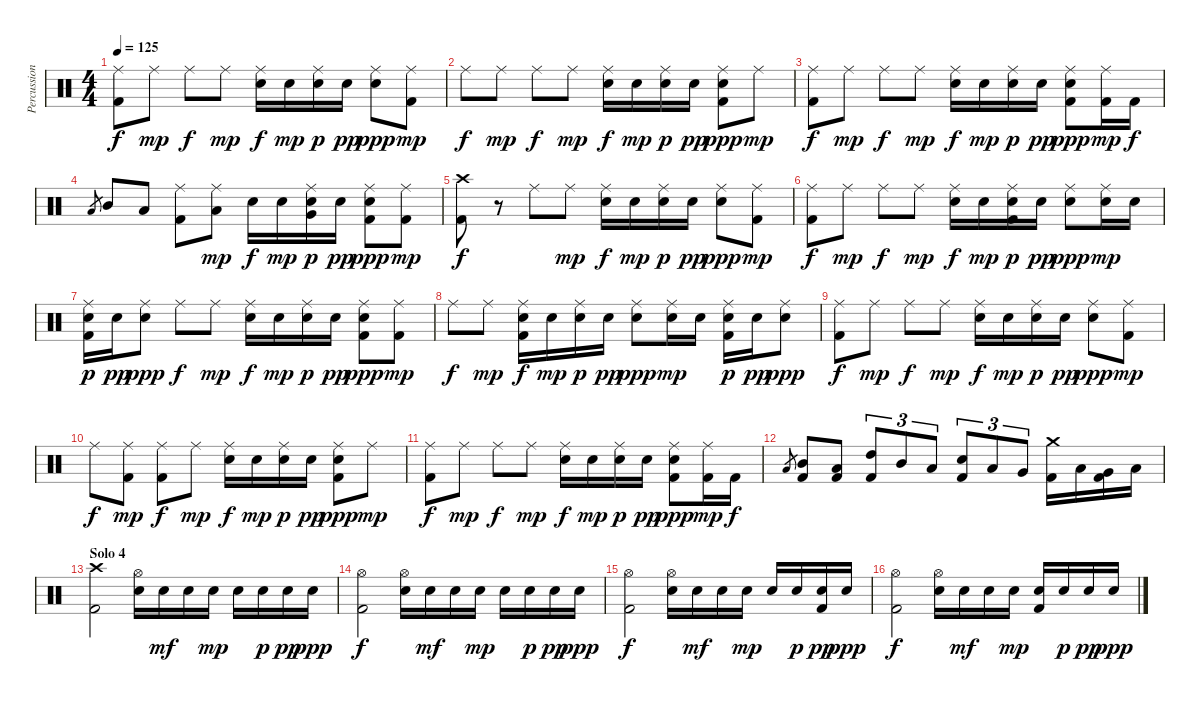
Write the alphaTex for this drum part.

\track ("Percussion" "Percussion") {instrument percussion}
\staff {score}
\articulation defaults
\ts (4 4)
\tempo 125
\clef neutral
\ks c
("Ride (middle)" "Kick (hit) 2").8{dy f} "Ride (middle)".8{dy mp} "Ride (middle)".8{dy f} "Ride (middle)".8{dy mp} ("Ride (middle)" "Electric Snare (hit)").16{dy f} "Electric Snare (hit)".16{dy mp} ("Ride (middle)" "Electric Snare (hit)").16{dy p} "Electric Snare (hit)".16{dy pp} ("Ride (middle)" "Electric Snare (hit)").8{dy ppp} ("Ride (middle)" "Kick (hit) 2").8{dy mp} |
"Ride (middle)".8{dy f} "Ride (middle)".8{dy mp} "Ride (middle)".8{dy f} "Ride (middle)".8{dy mp} ("Ride (middle)" "Electric Snare (hit)").16{dy f} "Electric Snare (hit)".16{dy mp} ("Ride (middle)" "Electric Snare (hit)").16{dy p} "Electric Snare (hit)".16{dy pp} ("Ride (middle)" "Electric Snare (hit)" "Kick (hit) 2").8{dy ppp} "Ride (middle)".8{dy mp} |
("Ride (middle)" "Kick (hit) 2").8{dy f} "Ride (middle)".8{dy mp} "Ride (middle)".8{dy f} "Ride (middle)".8{dy mp} ("Ride (middle)" "Electric Snare (hit)").16{dy f} "Electric Snare (hit)".16{dy mp} ("Ride (middle)" "Electric Snare (hit)").16{dy p} "Electric Snare (hit)".16{dy pp} ("Ride (middle)" "Electric Snare (hit)" "Kick (hit) 2").8{dy ppp} ("Ride (middle)" "Kick (hit) 2").16{dy mp} "Kick (hit) 2".16{dy f} |
"Low Tom (hit)".8{gr} "Mid Tom (hit)".8 "Low Tom (hit)".8 ("Ride (middle)" "Kick (hit) 2").8 ("Ride (middle)" "Low Tom (hit)").8{dy mp} "Electric Snare (hit)".16{dy f} "Electric Snare (hit)".16{dy mp} ("Ride (middle)" "Very Low Tom (hit)" "Electric Snare (hit)").16{dy p} "Electric Snare (hit)".16{dy pp} ("Ride (middle)" "Electric Snare (hit)" "Kick (hit) 2").8{dy ppp} ("Ride (middle)" "Kick (hit) 2").8{dy mp} |
("Crash high (hit)" "Kick (hit) 2").8{dy f} r.8 "Ride (middle)".8 "Ride (middle)".8{dy mp} ("Ride (middle)" "Electric Snare (hit)").16{dy f} "Electric Snare (hit)".16{dy mp} ("Ride (middle)" "Electric Snare (hit)").16{dy p} "Electric Snare (hit)".16{dy pp} ("Ride (middle)" "Electric Snare (hit)").8{dy ppp} ("Ride (middle)" "Kick (hit) 2").8{dy mp} |
("Ride (middle)" "Kick (hit) 2").8{dy f} "Ride (middle)".8{dy mp} "Ride (middle)".8{dy f} "Ride (middle)".8{dy mp} ("Ride (middle)" "Electric Snare (hit)").16{dy f} "Electric Snare (hit)".16{dy mp} ("Ride (middle)" "Electric Snare (hit)" "Kick (hit) 2").16{dy p} "Electric Snare (hit)".16{dy pp} ("Ride (middle)" "Electric Snare (hit)").8{dy ppp} ("Ride (middle)" "Electric Snare (hit)").16{dy mp} "Electric Snare (hit)".16 |
("Ride (middle)" "Electric Snare (hit)" "Kick (hit) 2").16{dy p} "Electric Snare (hit)".16{dy pp} ("Ride (middle)" "Electric Snare (hit)").8{dy ppp} "Ride (middle)".8{dy f} "Ride (middle)".8{dy mp} ("Ride (middle)" "Electric Snare (hit)").16{dy f} "Electric Snare (hit)".16{dy mp} ("Ride (middle)" "Electric Snare (hit)").16{dy p} "Electric Snare (hit)".16{dy pp} ("Ride (middle)" "Electric Snare (hit)" "Kick (hit) 2").8{dy ppp} ("Ride (middle)" "Kick (hit) 2").8{dy mp} |
"Ride (middle)".8{dy f} "Ride (middle)".8{dy mp} ("Ride (middle)" "Electric Snare (hit)" "Kick (hit) 2").16{dy f} "Electric Snare (hit)".16{dy mp} ("Ride (middle)" "Electric Snare (hit)").16{dy p} "Electric Snare (hit)".16{dy pp} ("Ride (middle)" "Electric Snare (hit)").8{dy ppp} ("Ride (middle)" "Electric Snare (hit)").16{dy mp} "Electric Snare (hit)".16 ("Ride (middle)" "Electric Snare (hit)" "Kick (hit) 2").16{dy p} "Electric Snare (hit)".16{dy pp} ("Ride (middle)" "Electric Snare (hit)").8{dy ppp} |
("Ride (middle)" "Kick (hit) 2").8{dy f} "Ride (middle)".8{dy mp} "Ride (middle)".8{dy f} "Ride (middle)".8{dy mp} ("Ride (middle)" "Electric Snare (hit)").16{dy f} "Electric Snare (hit)".16{dy mp} ("Ride (middle)" "Electric Snare (hit)").16{dy p} "Electric Snare (hit)".16{dy pp} ("Ride (middle)" "Electric Snare (hit)").8{dy ppp} ("Ride (middle)" "Kick (hit) 2").8{dy mp} |
"Ride (middle)".8{dy f} ("Ride (middle)" "Kick (hit) 2").8{dy mp} ("Ride (middle)" "Kick (hit) 2").8{dy f} "Ride (middle)".8{dy mp} ("Ride (middle)" "Electric Snare (hit)").16{dy f} "Electric Snare (hit)".16{dy mp} ("Ride (middle)" "Electric Snare (hit)").16{dy p} "Electric Snare (hit)".16{dy pp} ("Ride (middle)" "Electric Snare (hit)" "Kick (hit) 2").8{dy ppp} "Ride (middle)".8{dy mp} |
("Ride (middle)" "Kick (hit) 2").8{dy f} "Ride (middle)".8{dy mp} "Ride (middle)".8{dy f} "Ride (middle)".8{dy mp} ("Ride (middle)" "Electric Snare (hit)").16{dy f} "Electric Snare (hit)".16{dy mp} ("Ride (middle)" "Electric Snare (hit)").16{dy p} "Electric Snare (hit)".16{dy pp} ("Ride (middle)" "Electric Snare (hit)" "Kick (hit) 2").8{dy ppp} ("Ride (middle)" "Kick (hit) 2").16{dy mp} "Kick (hit) 2".16{dy f} |
"Low Tom (hit)".8{gr} ("Mid Tom (hit)" "Kick (hit) 2").8 ("Low Tom (hit)" "Kick (hit) 2").8 ("High Tom (hit)" "Kick (hit) 2").8{tu (3 2)} "Mid Tom (hit)".8{tu (3 2)} "Low Tom (hit)".8{tu (3 2)} ("Electric Snare (hit)" "Kick (hit) 2").8{tu (3 2)} "Low Tom (hit)".8{tu (3 2)} "Very Low Tom (hit)".8{tu (3 2)} ("Crash medium (hit)" "Kick (hit) 2").16 "Low Tom (hit)".16 ("Very Low Tom (hit)" "Kick (hit) 2").16 "Low Floor Tom (hit)".16 |
\section ("" "Solo 4")
("Crash high (hit)" "Kick (hit) 2").2 ("Hi-Hat (open)" "Electric Snare (hit)").16 "Electric Snare (hit)".16{dy mf} "Electric Snare (hit)".16 "Electric Snare (hit)".16{dy mp} "Electric Snare (hit)".16 "Electric Snare (hit)".16{dy p} "Electric Snare (hit)".16{dy pp} "Electric Snare (hit)".16{dy ppp} |
("Hi-Hat (open)" "Kick (hit) 2").2{dy f} ("Hi-Hat (open)" "Electric Snare (hit)").16 "Electric Snare (hit)".16{dy mf} "Electric Snare (hit)".16 "Electric Snare (hit)".16{dy mp} "Electric Snare (hit)".16 "Electric Snare (hit)".16{dy p} "Electric Snare (hit)".16{dy pp} "Electric Snare (hit)".16{dy ppp} |
("Hi-Hat (open)" "Kick (hit) 2").2{dy f} ("Hi-Hat (open)" "Electric Snare (hit)").16 "Electric Snare (hit)".16{dy mf} "Electric Snare (hit)".16 "Electric Snare (hit)".16{dy mp} "Electric Snare (hit)".16 "Electric Snare (hit)".16{dy p} ("Electric Snare (hit)" "Kick (hit) 2").16{dy pp} "Electric Snare (hit)".16{dy ppp} |
("Hi-Hat (open)" "Kick (hit) 2").2{dy f} ("Hi-Hat (open)" "Electric Snare (hit)").16 "Electric Snare (hit)".16{dy mf} "Electric Snare (hit)".16 "Electric Snare (hit)".16{dy mp} ("Electric Snare (hit)" "Kick (hit) 2").16 "Electric Snare (hit)".16{dy p} "Electric Snare (hit)".16{dy pp} "Electric Snare (hit)".16{dy ppp}
